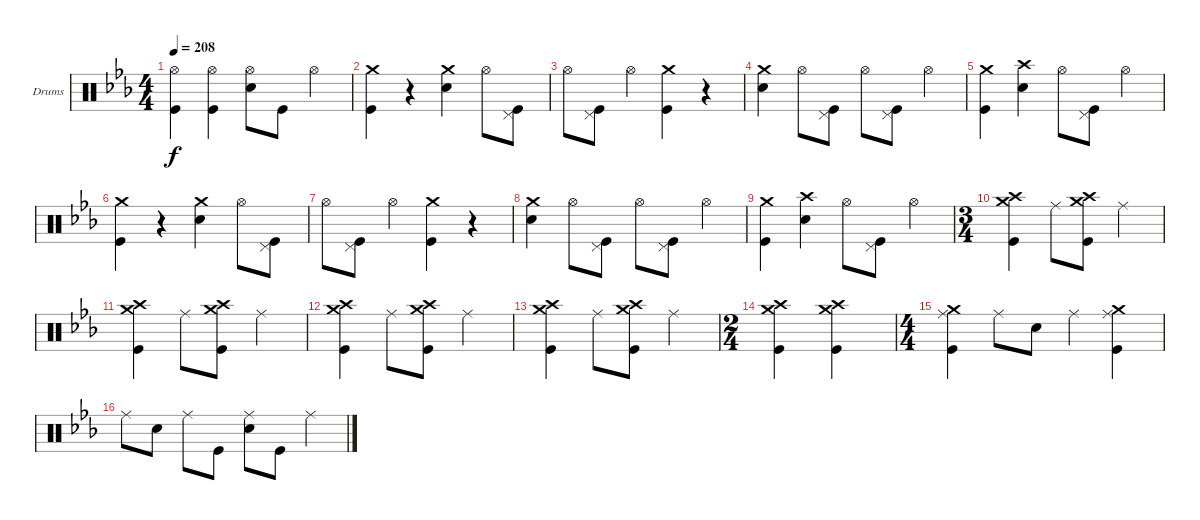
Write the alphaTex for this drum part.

\defaultSystemsLayout 4
\bracketExtendMode groupsimilarinstruments
\firstSystemTrackNameOrientation horizontal
\otherSystemsTrackNameOrientation horizontal
\track ("Drumkit" "Drums") {instrument percussion}
\staff {score}
\articulation defaults
\ts (4 4)
\tempo 208
\clef neutral
\ks eb
("Hi-Hat (open)" "Kick (hit)").4{dy f} ("Hi-Hat (open)" "Kick (hit)").4 ("Hi-Hat (open)" "Snare (hit) 2").8 "Kick (hit)".8 "Hi-Hat (open)".4 |
("Crash medium (hit)" "Kick (hit)").4 r.4 ("Crash medium (hit)" "Snare (hit) 2").4 "Hi-Hat (open)".8 ("Pedal Hi-Hat (hit)" "Kick (hit)").8 |
"Hi-Hat (open)".8 ("Pedal Hi-Hat (hit)" "Kick (hit)").8 "Hi-Hat (open)".4 ("Crash medium (hit)" "Kick (hit)").4 r.4 |
("Crash medium (hit)" "Snare (hit) 2").4 "Hi-Hat (open)".8 ("Pedal Hi-Hat (hit)" "Kick (hit)").8 "Hi-Hat (open)".8 ("Pedal Hi-Hat (hit)" "Kick (hit)").8 "Hi-Hat (open)".4 |
("Crash medium (hit)" "Kick (hit)").4 ("Crash high (hit)" "Snare (hit) 2").4 "Hi-Hat (open)".8 ("Pedal Hi-Hat (hit)" "Kick (hit)").8 "Hi-Hat (open)".4 |
("Crash medium (hit)" "Kick (hit)").4 r.4 ("Crash medium (hit)" "Snare (hit) 2").4 "Hi-Hat (open)".8 ("Pedal Hi-Hat (hit)" "Kick (hit)").8 |
"Hi-Hat (open)".8 ("Pedal Hi-Hat (hit)" "Kick (hit)").8 "Hi-Hat (open)".4 ("Crash medium (hit)" "Kick (hit)").4 r.4 |
("Crash medium (hit)" "Snare (hit) 2").4 "Hi-Hat (open)".8 ("Pedal Hi-Hat (hit)" "Kick (hit)").8 "Hi-Hat (open)".8 ("Pedal Hi-Hat (hit)" "Kick (hit)").8 "Hi-Hat (open)".4 |
("Crash medium (hit)" "Kick (hit)").4 ("Crash high (hit)" "Snare (hit) 2").4 "Hi-Hat (open)".8 ("Pedal Hi-Hat (hit)" "Kick (hit)").8 "Hi-Hat (open)".4 |
\ts (3 4)
("Crash medium (hit)" "Crash high (hit)" "Kick (hit)").4 "Ride (middle)".8 ("Crash medium (hit)" "Crash high (hit)" "Kick (hit)").8 "Ride (middle)".4 |
("Crash medium (hit)" "Crash high (hit)" "Kick (hit)").4 "Ride (middle)".8 ("Crash medium (hit)" "Crash high (hit)" "Kick (hit)").8 "Ride (middle)".4 |
("Crash medium (hit)" "Crash high (hit)" "Kick (hit)").4 "Ride (middle)".8 ("Crash medium (hit)" "Crash high (hit)" "Kick (hit)").8 "Ride (middle)".4 |
("Crash medium (hit)" "Crash high (hit)" "Kick (hit)").4 "Ride (middle)".8 ("Crash medium (hit)" "Crash high (hit)" "Kick (hit)").8 "Ride (middle)".4 |
\ts (2 4)
("Crash medium (hit)" "Crash high (hit)" "Kick (hit)").4 ("Crash medium (hit)" "Crash high (hit)" "Kick (hit)").4 |
\ts (4 4)
("Crash medium (hit)" "Ride (middle)" "Kick (hit)").4 "Ride (middle)".8 "Snare (hit) 2".8 "Ride (middle)".4 ("Crash medium (hit)" "Ride (middle)" "Kick (hit)").4 |
"Ride (middle)".8 "Snare (hit) 2".8 "Ride (middle)".8 "Kick (hit)".8 ("Ride (middle)" "Snare (hit) 2").8 "Kick (hit)".8 "Ride (middle)".4
